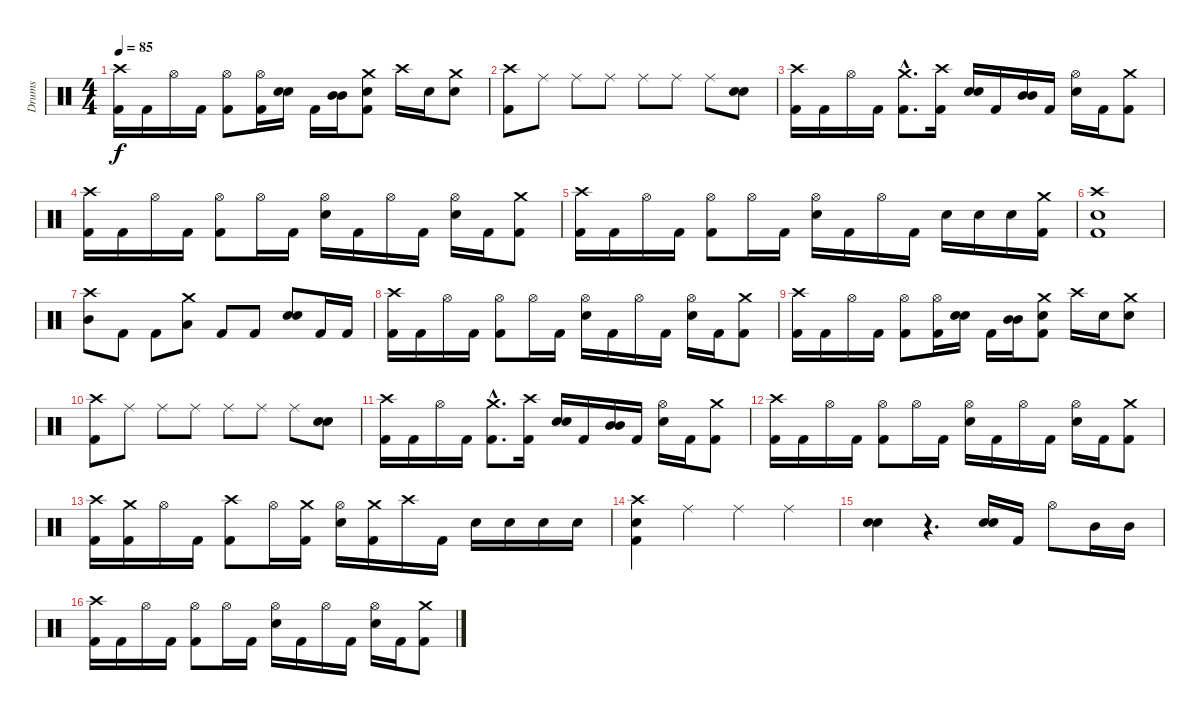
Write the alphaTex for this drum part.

\track ("Drums" "Drums") {instrument percussion}
\staff {score}
\articulation defaults
\ts (4 4)
\tempo 85
\clef neutral
\ks c
("Crash high (hit)" "Kick (hit) 2").16{dy f} "Kick (hit) 2".16 "Hi-Hat (open)".16 "Kick (hit) 2".16 ("Hi-Hat (open)" "Kick (hit) 2").8 ("Hi-Hat (open)" "Kick (hit) 2").16 ("Snare (hit) 2" "Snare (hit) 2").16{bd 240} "Kick (hit) 2".16 ("Mid Tom (hit)" "Mid Tom (hit)").16{bd 240} ("Crash medium (hit)" "Snare (hit) 2" "Kick (hit) 2").8 "Crash high (hit)".16 "Snare (hit) 2".16 ("Crash medium (hit)" "Snare (hit) 2").8 |
("Crash high (hit)" "Kick (hit) 2").8 "Ride (middle)".8 "Ride (middle)".8 "Ride (middle)".8 "Ride (middle)".8 "Ride (middle)".8 "Ride (middle)".8 ("Snare (hit) 2" "Snare (hit) 2").8{bd 240} |
("Crash high (hit)" "Kick (hit) 2").16 "Kick (hit) 2".16 "Hi-Hat (open)".16 "Kick (hit) 2".16 ("Crash medium (hit)"{hac} "Kick (hit) 2"{hac}).8{d} ("Crash high (hit)" "Kick (hit) 2").16 ("Snare (hit) 2" "Snare (hit) 2").16{bd 240} "Kick (hit) 2".16 ("Mid Tom (hit)" "Mid Tom (hit)").16{bd 240} "Kick (hit) 2".16 ("Hi-Hat (open)" "Snare (hit) 2").16 "Kick (hit) 2".16 ("Crash medium (hit)" "Kick (hit) 2").8 |
("Crash high (hit)" "Kick (hit) 2").16 "Kick (hit) 2".16 "Hi-Hat (open)".16 "Kick (hit) 2".16 ("Hi-Hat (open)" "Kick (hit) 2").8 "Hi-Hat (open)".16 "Kick (hit) 2".16 ("Hi-Hat (open)" "Snare (hit) 2").16 "Kick (hit) 2".16 "Hi-Hat (open)".16 "Kick (hit) 2".16 ("Hi-Hat (open)" "Snare (hit) 2").16 "Kick (hit) 2".16 ("Crash medium (hit)" "Kick (hit) 2").8 |
("Crash high (hit)" "Kick (hit) 2").16 "Kick (hit) 2".16 "Hi-Hat (open)".16 "Kick (hit) 2".16 ("Hi-Hat (open)" "Kick (hit) 2").8 "Hi-Hat (open)".16 "Kick (hit) 2".16 ("Hi-Hat (open)" "Snare (hit) 2").16 "Kick (hit) 2".16 "Hi-Hat (open)".16 "Kick (hit) 2".16 "Snare (hit) 2".16 "Snare (hit) 2".16 "Snare (hit) 2".16 ("Crash medium (hit)" "Kick (hit) 2").16 |
("Crash high (hit)" "Snare (hit) 2" "Kick (hit) 2").1 |
("Crash high (hit)" "Mid Tom (hit)").8 "Kick (hit) 2".8 "Kick (hit) 2".8 ("Crash medium (hit)" "Low Tom (hit)").8 "Kick (hit) 2".8 "Kick (hit) 2".8 ("Snare (hit) 2" "Snare (hit) 2").8{bd 240} "Kick (hit) 2".16 "Kick (hit) 2".16 |
("Crash high (hit)" "Kick (hit) 2").16 "Kick (hit) 2".16 "Hi-Hat (open)".16 "Kick (hit) 2".16 ("Hi-Hat (open)" "Kick (hit) 2").8 "Hi-Hat (open)".16 "Kick (hit) 2".16 ("Hi-Hat (open)" "Snare (hit) 2").16 "Kick (hit) 2".16 "Hi-Hat (open)".16 "Kick (hit) 2".16 ("Hi-Hat (open)" "Snare (hit) 2").16 "Kick (hit) 2".16 ("Crash medium (hit)" "Kick (hit) 2").8 |
("Crash high (hit)" "Kick (hit) 2").16 "Kick (hit) 2".16 "Hi-Hat (open)".16 "Kick (hit) 2".16 ("Hi-Hat (open)" "Kick (hit) 2").8 ("Hi-Hat (open)" "Kick (hit) 2").16 ("Snare (hit) 2" "Snare (hit) 2").16{bd 240} "Kick (hit) 2".16 ("Mid Tom (hit)" "Mid Tom (hit)").16{bd 240} ("Crash medium (hit)" "Snare (hit) 2" "Kick (hit) 2").8 "Crash high (hit)".16 "Snare (hit) 2".16 ("Crash medium (hit)" "Snare (hit) 2").8 |
("Crash high (hit)" "Kick (hit) 2").8 "Ride (middle)".8 "Ride (middle)".8 "Ride (middle)".8 "Ride (middle)".8 "Ride (middle)".8 "Ride (middle)".8 ("Snare (hit) 2" "Snare (hit) 2").8{bd 240} |
("Crash high (hit)" "Kick (hit) 2").16 "Kick (hit) 2".16 "Hi-Hat (open)".16 "Kick (hit) 2".16 ("Crash medium (hit)"{hac} "Kick (hit) 2"{hac}).8{d} ("Crash high (hit)" "Kick (hit) 2").16 ("Snare (hit) 2" "Snare (hit) 2").16{bd 240} "Kick (hit) 2".16 ("Mid Tom (hit)" "Mid Tom (hit)").16{bd 240} "Kick (hit) 2".16 ("Hi-Hat (open)" "Snare (hit) 2").16 "Kick (hit) 2".16 ("Crash medium (hit)" "Kick (hit) 2").8 |
("Crash high (hit)" "Kick (hit) 2").16 "Kick (hit) 2".16 "Hi-Hat (open)".16 "Kick (hit) 2".16 ("Hi-Hat (open)" "Kick (hit) 2").8 "Hi-Hat (open)".16 "Kick (hit) 2".16 ("Hi-Hat (open)" "Snare (hit) 2").16 "Kick (hit) 2".16 "Hi-Hat (open)".16 "Kick (hit) 2".16 ("Hi-Hat (open)" "Snare (hit) 2").16 "Kick (hit) 2".16 ("Crash medium (hit)" "Kick (hit) 2").8 |
("Crash high (hit)" "Kick (hit) 2").16 ("Crash medium (hit)" "Kick (hit) 2").16 "Hi-Hat (open)".16 "Kick (hit) 2".16 ("Crash high (hit)" "Kick (hit) 2").8 "Hi-Hat (open)".16 ("Crash medium (hit)" "Kick (hit) 2").16 ("Hi-Hat (open)" "Snare (hit) 2").16 ("Crash medium (hit)" "Kick (hit) 2").16 "Crash high (hit)".16 "Kick (hit) 2".16 "Snare (hit) 2".16 "Snare (hit) 2".16 "Snare (hit) 2".16 "Snare (hit) 2".16 |
("Crash high (hit)" "Snare (hit) 2" "Kick (hit) 2").4 "Ride (middle)".4 "Ride (middle)".4 "Ride (middle)".4 |
("Snare (hit) 2" "Snare (hit) 2").4{bd 240} r.4{d} ("Snare (hit) 2" "Snare (hit) 2").16{bd 240} "Kick (hit) 2".16 "Hi-Hat (open)".8 "Mid Tom (hit)".16 "Mid Tom (hit)".16 |
("Crash high (hit)" "Kick (hit) 2").16 "Kick (hit) 2".16 "Hi-Hat (open)".16 "Kick (hit) 2".16 ("Hi-Hat (open)" "Kick (hit) 2").8 "Hi-Hat (open)".16 "Kick (hit) 2".16 ("Hi-Hat (open)" "Snare (hit) 2").16 "Kick (hit) 2".16 "Hi-Hat (open)".16 "Kick (hit) 2".16 ("Hi-Hat (open)" "Snare (hit) 2").16 "Kick (hit) 2".16 ("Crash medium (hit)" "Kick (hit) 2").8
